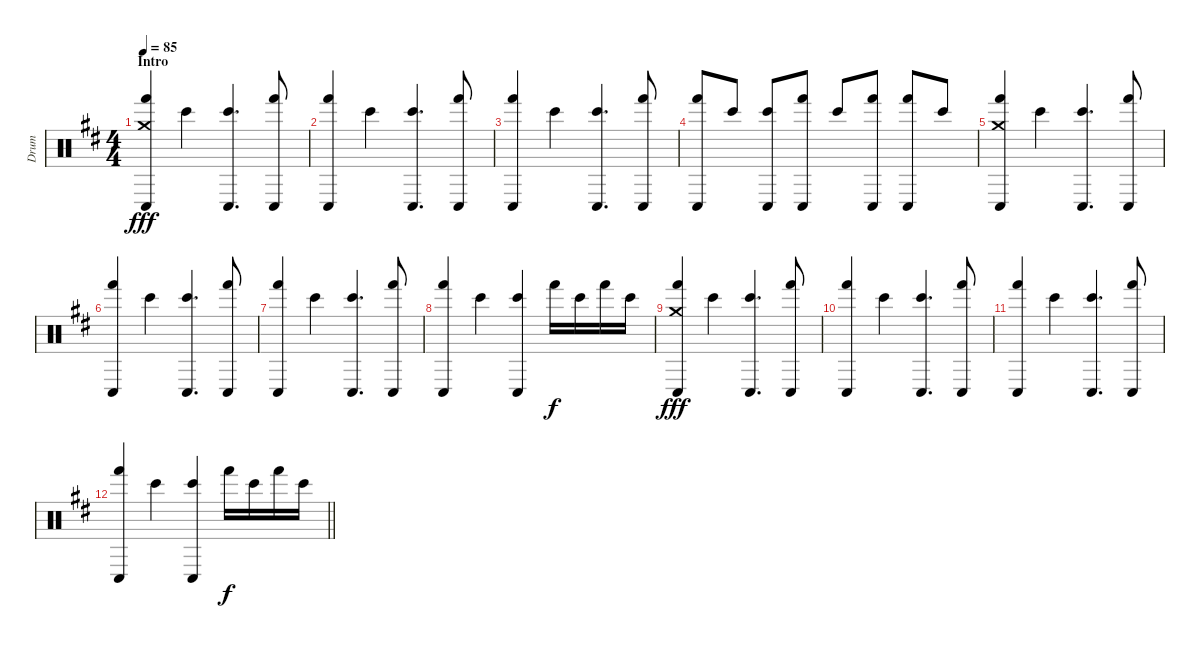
\track ("Drum " "Drum ") {instrument percussion}
\staff {score}
\articulation defaults
\ts (4 4)
\section ("" "Intro")
\tempo 85
\clef neutral
\ks d
("Conga low (hit)" "Hand (hit)" "Crash medium (hit)").4{dy fff} "Bongo High (hit)".4 ("Conga low (hit)" "Bongo High (hit)").4{d} ("Conga low (hit)" "Hand (hit)").8 |
("Conga low (hit)" "Hand (hit)").4 "Bongo High (hit)".4 ("Conga low (hit)" "Bongo High (hit)").4{d} ("Conga low (hit)" "Hand (hit)").8 |
("Conga low (hit)" "Hand (hit)").4 "Bongo High (hit)".4 ("Conga low (hit)" "Bongo High (hit)").4{d} ("Conga low (hit)" "Hand (hit)").8 |
("Conga low (hit)" "Hand (hit)").8 "Bongo High (hit)".8 ("Conga low (hit)" "Bongo High (hit)").8 ("Conga low (hit)" "Hand (hit)").8 "Bongo High (hit)".8 ("Conga low (hit)" "Hand (hit)").8 ("Conga low (hit)" "Hand (hit)").8 "Bongo High (hit)".8 |
("Conga low (hit)" "Hand (hit)" "Crash medium (hit)").4{volume 9} "Bongo High (hit)".4 ("Conga low (hit)" "Bongo High (hit)").4{d} ("Conga low (hit)" "Hand (hit)").8 |
("Conga low (hit)" "Hand (hit)").4 "Bongo High (hit)".4 ("Conga low (hit)" "Bongo High (hit)").4{d} ("Conga low (hit)" "Hand (hit)").8 |
("Conga low (hit)" "Hand (hit)").4 "Bongo High (hit)".4 ("Conga low (hit)" "Bongo High (hit)").4{d} ("Conga low (hit)" "Hand (hit)").8 |
("Conga low (hit)" "Hand (hit)").4 "Bongo High (hit)".4 ("Conga low (hit)" "Bongo High (hit)").4 "Hand (hit)".16{dy f} "Bongo High (hit)".16 "Hand (hit)".16 "Bongo High (hit)".16 |
("Conga low (hit)" "Hand (hit)" "Crash medium (hit)").4{dy fff volume 0} "Bongo High (hit)".4 ("Conga low (hit)" "Bongo High (hit)").4{d} ("Conga low (hit)" "Hand (hit)").8 |
("Conga low (hit)" "Hand (hit)").4 "Bongo High (hit)".4 ("Conga low (hit)" "Bongo High (hit)").4{d} ("Conga low (hit)" "Hand (hit)").8 |
("Conga low (hit)" "Hand (hit)").4 "Bongo High (hit)".4 ("Conga low (hit)" "Bongo High (hit)").4{d} ("Conga low (hit)" "Hand (hit)").8 |
\barLineRight lightlight
("Conga low (hit)" "Hand (hit)").4 "Bongo High (hit)".4 ("Conga low (hit)" "Bongo High (hit)").4 "Hand (hit)".16{dy f} "Bongo High (hit)".16 "Hand (hit)".16 "Bongo High (hit)".16
